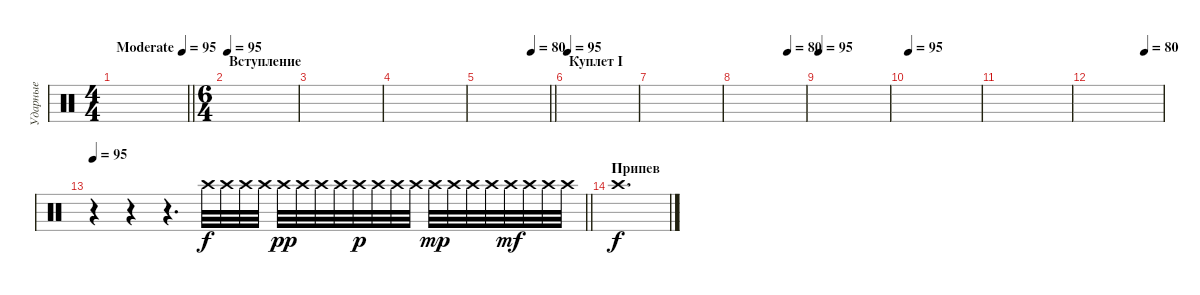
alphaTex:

\track ("Ударные" "Ударные") {instrument percussion}
\staff {score}
\articulation defaults
\ts (4 4)
\tempo (95 "Moderate")
\clef neutral
\barLineRight lightlight
\ks c
|
\ts (6 4)
\section ("" "Вступление")
\tempo 95
|
|
|
\tempo (80 0.75)
\barLineRight lightlight
|
\section ("" "Куплет I")
\tempo 95
|
|
\tempo (80 0.75)
|
\tempo 95
|
\tempo 95
|
|
\tempo (80 0.75)
|
\tempo 95
\barLineRight lightlight
r.4 r.4 r.4{d} "Crash high (hit)".32 "Crash high (hit)".32 "Crash high (hit)".32 "Crash high (hit)".32 "Crash high (hit)".32{dy pp} "Crash high (hit)".32 "Crash high (hit)".32 "Crash high (hit)".32 "Crash high (hit)".32{dy p} "Crash high (hit)".32 "Crash high (hit)".32 "Crash high (hit)".32 "Crash high (hit)".32{dy mp} "Crash high (hit)".32 "Crash high (hit)".32 "Crash high (hit)".32 "Crash high (hit)".32{dy mf} "Crash high (hit)".32 "Crash high (hit)".32 "Crash high (hit)".32 |
\section ("" "Припев")
"Crash high (hit)".1{d dy f}
